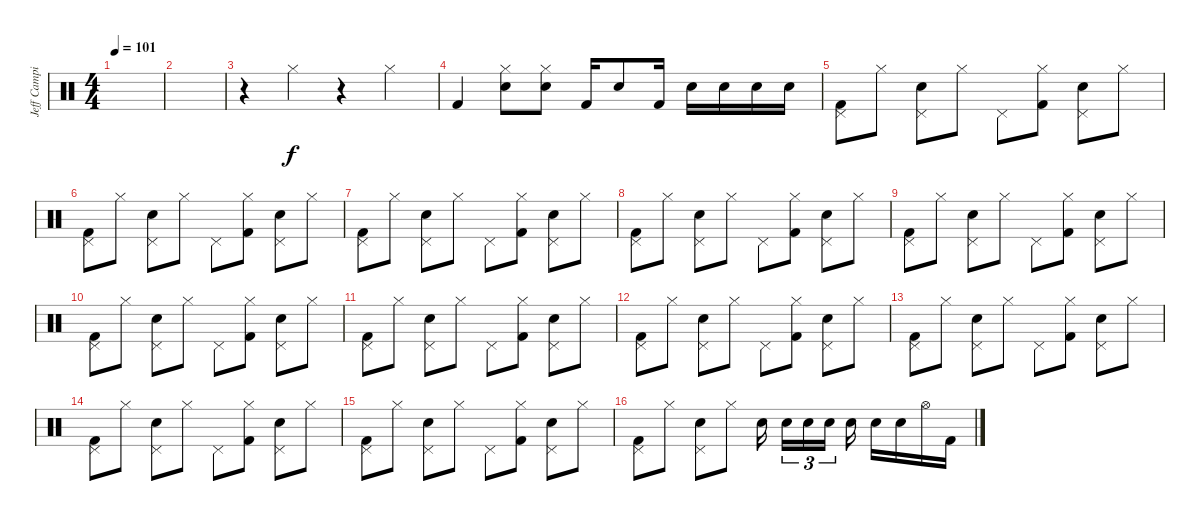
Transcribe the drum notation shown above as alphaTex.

\track ("Jeff Campitelli " "Jeff Campi") {instrument percussion}
\staff {score}
\articulation defaults
\ts (4 4)
\tempo 101
\clef neutral
\ks c
|
|
r.4 "Hi-Hat (closed)".4 r.4 "Hi-Hat (closed)".4 |
"Kick (hit) 2".4 ("Electric Snare (hit)" "Hi-Hat (closed)").8 ("Electric Snare (hit)" "Hi-Hat (closed)").8 "Kick (hit) 2".16 "Electric Snare (hit)".8 "Kick (hit) 2".16 "Electric Snare (hit)".16 "Electric Snare (hit)".16 "Electric Snare (hit)".16 "Electric Snare (hit)".16 |
("Pedal Hi-Hat (hit)" "Kick (hit) 2").8 "Hi-Hat (closed)".8 ("Pedal Hi-Hat (hit)" "Electric Snare (hit)").8 "Hi-Hat (closed)".8 "Pedal Hi-Hat (hit)".8 ("Hi-Hat (closed)" "Kick (hit) 2").8 ("Pedal Hi-Hat (hit)" "Electric Snare (hit)").8 "Hi-Hat (closed)".8 |
("Pedal Hi-Hat (hit)" "Kick (hit) 2").8 "Hi-Hat (closed)".8 ("Pedal Hi-Hat (hit)" "Electric Snare (hit)").8 "Hi-Hat (closed)".8 "Pedal Hi-Hat (hit)".8 ("Hi-Hat (closed)" "Kick (hit) 2").8 ("Pedal Hi-Hat (hit)" "Electric Snare (hit)").8 "Hi-Hat (closed)".8 |
("Pedal Hi-Hat (hit)" "Kick (hit) 2").8 "Hi-Hat (closed)".8 ("Pedal Hi-Hat (hit)" "Electric Snare (hit)").8 "Hi-Hat (closed)".8 "Pedal Hi-Hat (hit)".8 ("Hi-Hat (closed)" "Kick (hit) 2").8 ("Pedal Hi-Hat (hit)" "Electric Snare (hit)").8 "Hi-Hat (closed)".8 |
("Pedal Hi-Hat (hit)" "Kick (hit) 2").8 "Hi-Hat (closed)".8 ("Pedal Hi-Hat (hit)" "Electric Snare (hit)").8 "Hi-Hat (closed)".8 "Pedal Hi-Hat (hit)".8 ("Hi-Hat (closed)" "Kick (hit) 2").8 ("Pedal Hi-Hat (hit)" "Electric Snare (hit)").8 "Hi-Hat (closed)".8 |
("Pedal Hi-Hat (hit)" "Kick (hit) 2").8 "Hi-Hat (closed)".8 ("Pedal Hi-Hat (hit)" "Electric Snare (hit)").8 "Hi-Hat (closed)".8 "Pedal Hi-Hat (hit)".8 ("Hi-Hat (closed)" "Kick (hit) 2").8 ("Pedal Hi-Hat (hit)" "Electric Snare (hit)").8 "Hi-Hat (closed)".8 |
("Pedal Hi-Hat (hit)" "Kick (hit) 2").8 "Hi-Hat (closed)".8 ("Pedal Hi-Hat (hit)" "Electric Snare (hit)").8 "Hi-Hat (closed)".8 "Pedal Hi-Hat (hit)".8 ("Hi-Hat (closed)" "Kick (hit) 2").8 ("Pedal Hi-Hat (hit)" "Electric Snare (hit)").8 "Hi-Hat (closed)".8 |
("Pedal Hi-Hat (hit)" "Kick (hit) 2").8 "Hi-Hat (closed)".8 ("Pedal Hi-Hat (hit)" "Electric Snare (hit)").8 "Hi-Hat (closed)".8 "Pedal Hi-Hat (hit)".8 ("Hi-Hat (closed)" "Kick (hit) 2").8 ("Pedal Hi-Hat (hit)" "Electric Snare (hit)").8 "Hi-Hat (closed)".8 |
("Pedal Hi-Hat (hit)" "Kick (hit) 2").8 "Hi-Hat (closed)".8 ("Pedal Hi-Hat (hit)" "Electric Snare (hit)").8 "Hi-Hat (closed)".8 "Pedal Hi-Hat (hit)".8 ("Hi-Hat (closed)" "Kick (hit) 2").8 ("Pedal Hi-Hat (hit)" "Electric Snare (hit)").8 "Hi-Hat (closed)".8 |
("Pedal Hi-Hat (hit)" "Kick (hit) 2").8 "Hi-Hat (closed)".8 ("Pedal Hi-Hat (hit)" "Electric Snare (hit)").8 "Hi-Hat (closed)".8 "Pedal Hi-Hat (hit)".8 ("Hi-Hat (closed)" "Kick (hit) 2").8 ("Pedal Hi-Hat (hit)" "Electric Snare (hit)").8 "Hi-Hat (closed)".8 |
("Pedal Hi-Hat (hit)" "Kick (hit) 2").8 "Hi-Hat (closed)".8 ("Pedal Hi-Hat (hit)" "Electric Snare (hit)").8 "Hi-Hat (closed)".8 "Pedal Hi-Hat (hit)".8 ("Hi-Hat (closed)" "Kick (hit) 2").8 ("Pedal Hi-Hat (hit)" "Electric Snare (hit)").8 "Hi-Hat (closed)".8 |
("Pedal Hi-Hat (hit)" "Kick (hit) 2").8 "Hi-Hat (closed)".8 ("Pedal Hi-Hat (hit)" "Electric Snare (hit)").8 "Hi-Hat (closed)".8 "Pedal Hi-Hat (hit)".8 ("Hi-Hat (closed)" "Kick (hit) 2").8 ("Pedal Hi-Hat (hit)" "Electric Snare (hit)").8 "Hi-Hat (closed)".8 |
("Pedal Hi-Hat (hit)" "Kick (hit) 2").8 "Hi-Hat (closed)".8 ("Pedal Hi-Hat (hit)" "Electric Snare (hit)").8 "Hi-Hat (closed)".8 "Electric Snare (hit)".16{beam splitsecondary} "Electric Snare (hit)".16{tu (3 2)} "Electric Snare (hit)".16{tu (3 2)} "Electric Snare (hit)".16{tu (3 2) beam splitsecondary} "Electric Snare (hit)".16 "Electric Snare (hit)".16 "Electric Snare (hit)".16 "Hi-Hat (open)".16 "Kick (hit) 2".16
